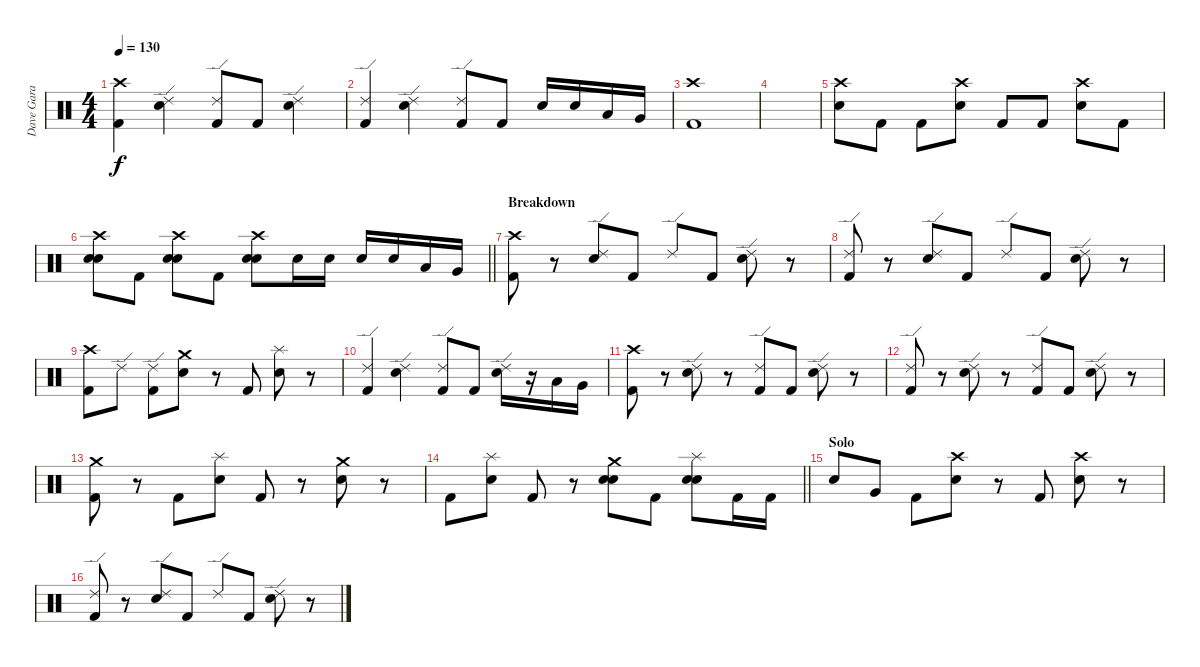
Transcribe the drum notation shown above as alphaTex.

\track ("Dave Gara" "Dave Gara") {instrument percussion}
\staff {score}
\articulation defaults
\ts (4 4)
\tempo 130
\clef neutral
\ks c
("Crash high (hit)" "Kick (hit) 2").4{dy f} ("Ride (edge) 2" "Electric Snare (hit)").4 ("Ride (edge) 2" "Kick (hit) 2").8 "Kick (hit) 2".8 ("Ride (edge) 2" "Electric Snare (hit)").4 |
("Ride (edge) 2" "Kick (hit) 2").4 ("Ride (edge) 2" "Electric Snare (hit)").4 ("Ride (edge) 2" "Kick (hit) 2").8 "Kick (hit) 2".8 "Electric Snare (hit)".16 "Electric Snare (hit)".16 "Low Tom (hit)".16 "Very Low Tom (hit)".16 |
("Crash high (hit)" "Kick (hit) 2").1 |
|
("Crash high (hit)" "Electric Snare (hit)").8 "Kick (hit) 2".8 "Kick (hit) 2".8 ("Crash high (hit)" "Electric Snare (hit)").8 "Kick (hit) 2".8 "Kick (hit) 2".8 ("Crash high (hit)" "Electric Snare (hit)").8 "Kick (hit) 2".8 |
\barLineRight lightlight
("Crash high (hit)" "Electric Snare (hit)" "Electric Snare (hit)").8 "Kick (hit) 2".8 ("Crash high (hit)" "Electric Snare (hit)" "Electric Snare (hit)").8 "Kick (hit) 2".8 ("Crash high (hit)" "Electric Snare (hit)" "Electric Snare (hit)").8 "Electric Snare (hit)".16 "Electric Snare (hit)".16 "Electric Snare (hit)".16 "Electric Snare (hit)".16 "Low Tom (hit)".16 "Very Low Tom (hit)".16 |
\section ("" "Breakdown")
("Crash high (hit)" "Kick (hit) 2").8 r.8 ("Ride (edge) 2" "Electric Snare (hit)").8 "Kick (hit) 2".8 "Ride (edge) 2".8 "Kick (hit) 2".8 ("Ride (edge) 2" "Electric Snare (hit)").8 r.8 |
("Ride (edge) 2" "Kick (hit) 2").8 r.8 ("Ride (edge) 2" "Electric Snare (hit)").8 "Kick (hit) 2".8 "Ride (edge) 2".8 "Kick (hit) 2".8 ("Ride (edge) 2" "Electric Snare (hit)").8 r.8 |
("Crash high (hit)" "Kick (hit) 2").8 "Ride (edge) 2".8 ("Ride (edge) 2" "Kick (hit) 2").8 ("Crash medium (hit)" "Electric Snare (hit)").8 r.8 "Kick (hit) 2".8 ("Splash (hit)" "Electric Snare (hit)").8 r.8 |
("Ride (edge) 2" "Kick (hit) 2").4 ("Ride (edge) 2" "Electric Snare (hit)").4 ("Ride (edge) 2" "Kick (hit) 2").8 "Kick (hit) 2".8 ("Ride (edge) 2" "Electric Snare (hit)").16 r.16 "Low Tom (hit)".16 "Very Low Tom (hit)".16 |
("Crash high (hit)" "Kick (hit) 2").8 r.8 ("Ride (edge) 2" "Electric Snare (hit)").8 r.8 ("Ride (edge) 2" "Kick (hit) 2").8 "Kick (hit) 2".8 ("Ride (edge) 2" "Electric Snare (hit)").8 r.8 |
("Ride (edge) 2" "Kick (hit) 2").8 r.8 ("Ride (edge) 2" "Electric Snare (hit)").8 r.8 ("Ride (edge) 2" "Kick (hit) 2").8 "Kick (hit) 2".8 ("Ride (edge) 2" "Electric Snare (hit)").8 r.8 |
("Crash medium (hit)" "Kick (hit) 2").8 r.8 "Kick (hit) 2".8 ("Splash (hit)" "Electric Snare (hit)").8 "Kick (hit) 2".8 r.8 ("Crash medium (hit)" "Electric Snare (hit)").8 r.8 |
\barLineRight lightlight "Kick (hit) 2".8
("Splash (hit)" "Electric Snare (hit)").8 "Kick (hit) 2".8 r.8 ("Crash medium (hit)" "Electric Snare (hit)" "Electric Snare (hit)").8 "Kick (hit) 2".8 ("Splash (hit)" "Electric Snare (hit)" "Electric Snare (hit)").8 "Kick (hit) 2".16 "Kick (hit) 2".16 |
\section ("" "Solo")
"Electric Snare (hit)".8 "Very Low Tom (hit)".8 "Kick (hit) 2".8 ("Crash high (hit)" "Electric Snare (hit)").8 r.8 "Kick (hit) 2".8 ("Crash high (hit)" "Electric Snare (hit)").8 r.8 |
("Ride (edge) 2" "Kick (hit) 2").8 r.8 ("Ride (edge) 2" "Electric Snare (hit)").8 "Kick (hit) 2".8 "Ride (edge) 2".8 "Kick (hit) 2".8 ("Ride (edge) 2" "Electric Snare (hit)").8 r.8
